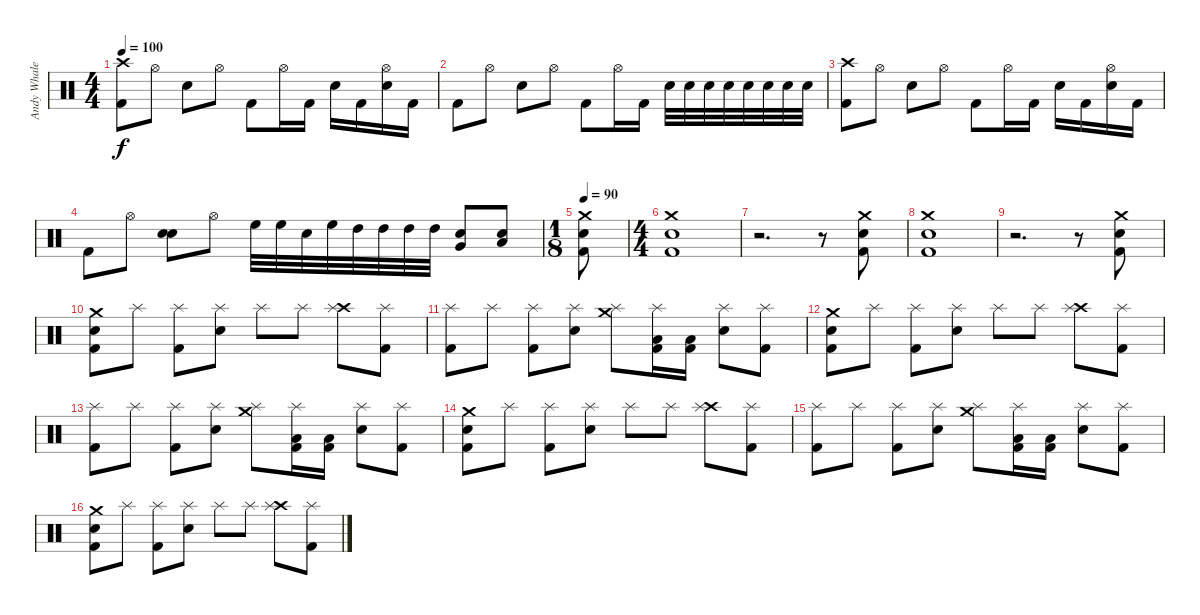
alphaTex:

\track ("Andy Whale" "Andy Whale") {instrument percussion}
\staff {score}
\articulation defaults
\ts (4 4)
\tempo 100
\clef neutral
\ks c
("Crash high (hit)" "Kick (hit) 2").8{dy f} "Hi-Hat (open)".8 "Snare (hit) 2".8 "Hi-Hat (open)".8 "Kick (hit) 2".8 "Hi-Hat (open)".16 "Kick (hit) 2".16 "Snare (hit) 2".16 "Kick (hit) 2".16 ("Hi-Hat (open)" "Snare (hit) 2").16 "Kick (hit) 2".16 |
"Kick (hit) 2".8 "Hi-Hat (open)".8 "Snare (hit) 2".8 "Hi-Hat (open)".8 "Kick (hit) 2".8 "Hi-Hat (open)".16 "Kick (hit) 2".16 "Snare (hit) 2".32 "Snare (hit) 2".32 "Snare (hit) 2".32 "Snare (hit) 2".32 "Snare (hit) 2".32 "Snare (hit) 2".32 "Snare (hit) 2".32 "Snare (hit) 2".32 |
("Crash high (hit)" "Kick (hit) 2").8 "Hi-Hat (open)".8 "Snare (hit) 2".8 "Hi-Hat (open)".8 "Kick (hit) 2".8 "Hi-Hat (open)".16 "Kick (hit) 2".16 "Snare (hit) 2".16 "Kick (hit) 2".16 ("Hi-Hat (open)" "Snare (hit) 2").16 "Kick (hit) 2".16 |
"Kick (hit) 2".8 "Hi-Hat (open)".8 ("Snare (hit) 2" "Electric Snare (hit)").8 "Hi-Hat (open)".8 "High Floor Tom (hit)".32 "High Floor Tom (hit)".32 "Snare (hit)".32 "High Floor Tom (hit)".32 "High Tom (hit)".32 "High Tom (hit)".32 "High Tom (hit)".32 "High Tom (hit)".32 ("Very Low Tom (hit)" "Snare (hit) 2").8 ("Low Floor Tom (hit)" "Snare (hit) 2").8 |
\ts (1 8)
\tempo 90
("Crash medium (hit)" "Snare (hit) 2" "Kick (hit) 2").8 |
\ts (4 4)
("Crash medium (hit)" "Snare (hit) 2" "Kick (hit) 2").1 |
r.2{d} r.8 ("Crash medium (hit)" "Snare (hit) 2" "Kick (hit) 2").8 |
("Crash medium (hit)" "Snare (hit) 2" "Kick (hit) 2").1 |
r.2{d} r.8 ("Crash medium (hit)" "Snare (hit) 2" "Kick (hit) 2").8 |
("Crash medium (hit)" "Snare (hit) 2" "Kick (hit) 2").8 "Splash (hit)".8 ("Splash (hit)" "Kick (hit) 2").8 ("Splash (hit)" "Snare (hit) 2").8 "Splash (hit)".8 "Splash (hit)".8 ("Crash high (hit)" "Splash (hit)").8 ("Splash (hit)" "Kick (hit) 2").8 |
("Splash (hit)" "Kick (hit) 2").8 "Splash (hit)".8 ("Splash (hit)" "Kick (hit) 2").8 ("Splash (hit)" "Snare (hit) 2").8 ("Crash medium (hit)" "Splash (hit)").8 ("Splash (hit)" "Low Floor Tom (hit)" "Kick (hit) 2").16 ("Low Floor Tom (hit)" "Kick (hit) 2").16 ("Splash (hit)" "Snare (hit) 2").8 ("Splash (hit)" "Kick (hit) 2").8 |
("Crash medium (hit)" "Snare (hit) 2" "Kick (hit) 2").8 "Splash (hit)".8 ("Splash (hit)" "Kick (hit) 2").8 ("Splash (hit)" "Snare (hit) 2").8 "Splash (hit)".8 "Splash (hit)".8 ("Crash high (hit)" "Splash (hit)").8 ("Splash (hit)" "Kick (hit) 2").8 |
("Splash (hit)" "Kick (hit) 2").8 "Splash (hit)".8 ("Splash (hit)" "Kick (hit) 2").8 ("Splash (hit)" "Snare (hit) 2").8 ("Crash medium (hit)" "Splash (hit)").8 ("Splash (hit)" "Low Floor Tom (hit)" "Kick (hit) 2").16 ("Low Floor Tom (hit)" "Kick (hit) 2").16 ("Splash (hit)" "Snare (hit) 2").8 ("Splash (hit)" "Kick (hit) 2").8 |
("Crash medium (hit)" "Snare (hit) 2" "Kick (hit) 2").8 "Splash (hit)".8 ("Splash (hit)" "Kick (hit) 2").8 ("Splash (hit)" "Snare (hit) 2").8 "Splash (hit)".8 "Splash (hit)".8 ("Crash high (hit)" "Splash (hit)").8 ("Splash (hit)" "Kick (hit) 2").8 |
("Splash (hit)" "Kick (hit) 2").8 "Splash (hit)".8 ("Splash (hit)" "Kick (hit) 2").8 ("Splash (hit)" "Snare (hit) 2").8 ("Crash medium (hit)" "Splash (hit)").8 ("Splash (hit)" "Low Floor Tom (hit)" "Kick (hit) 2").16 ("Low Floor Tom (hit)" "Kick (hit) 2").16 ("Splash (hit)" "Snare (hit) 2").8 ("Splash (hit)" "Kick (hit) 2").8 |
("Crash medium (hit)" "Snare (hit) 2" "Kick (hit) 2").8 "Splash (hit)".8 ("Splash (hit)" "Kick (hit) 2").8 ("Splash (hit)" "Snare (hit) 2").8 "Splash (hit)".8 "Splash (hit)".8 ("Crash high (hit)" "Splash (hit)").8 ("Splash (hit)" "Kick (hit) 2").8
